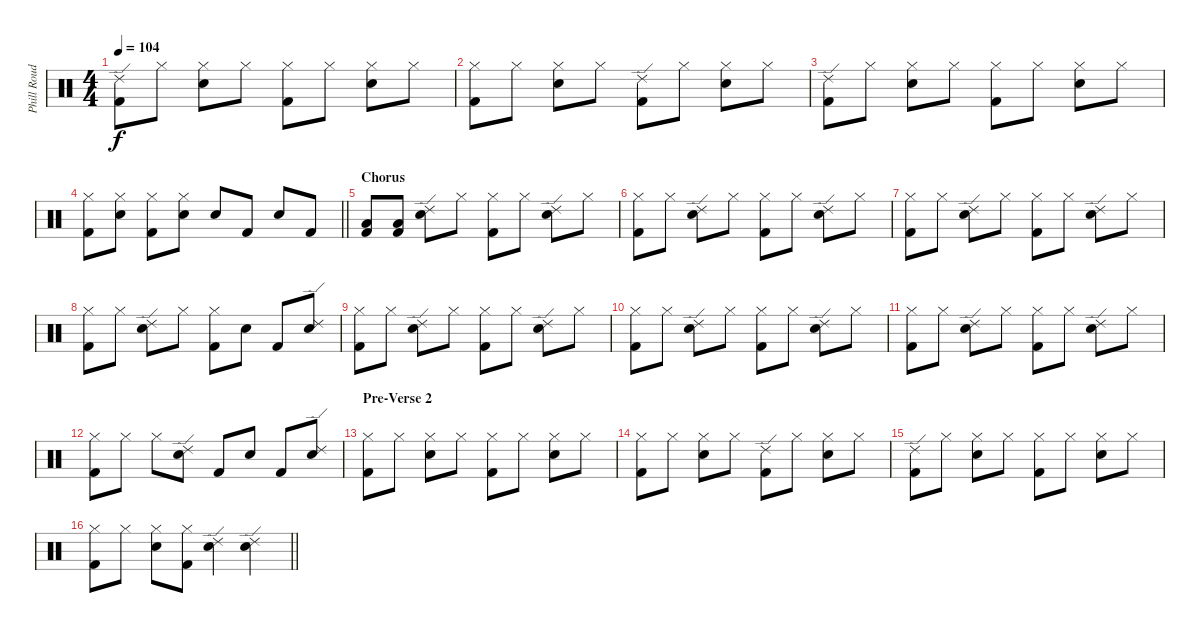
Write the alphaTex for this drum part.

\track ("Phill Roud" "Phill Roud") {instrument percussion}
\staff {score}
\articulation defaults
\ts (4 4)
\tempo 104
\clef neutral
\ks c
("Kick (hit) 2" "Ride (edge) 2").8{dy f} "Hi-Hat (closed)".8 ("Hi-Hat (closed)" "Snare (hit) 2").8 "Hi-Hat (closed)".8 ("Hi-Hat (closed)" "Kick (hit) 2").8 "Hi-Hat (closed)".8 ("Hi-Hat (closed)" "Snare (hit) 2").8 "Hi-Hat (closed)".8 |
("Hi-Hat (closed)" "Kick (hit) 2").8 "Hi-Hat (closed)".8 ("Hi-Hat (closed)" "Snare (hit) 2").8 "Hi-Hat (closed)".8 ("Kick (hit) 2" "Ride (edge) 2").8 "Hi-Hat (closed)".8 ("Hi-Hat (closed)" "Snare (hit) 2").8 "Hi-Hat (closed)".8 |
("Kick (hit) 2" "Ride (edge) 2").8 "Hi-Hat (closed)".8 ("Hi-Hat (closed)" "Snare (hit) 2").8 "Hi-Hat (closed)".8 ("Hi-Hat (closed)" "Kick (hit) 2").8 "Hi-Hat (closed)".8 ("Hi-Hat (closed)" "Snare (hit) 2").8 "Hi-Hat (closed)".8 |
\barLineRight lightlight
("Hi-Hat (closed)" "Kick (hit) 2").8 ("Hi-Hat (closed)" "Snare (hit) 2").8 ("Hi-Hat (closed)" "Kick (hit) 2").8 ("Hi-Hat (closed)" "Snare (hit) 2").8 "Snare (hit) 2".8 "Kick (hit) 2".8 "Snare (hit) 2".8 "Kick (hit) 2".8 |
\section ("" "Chorus")
("Kick (hit) 2" "Low Floor Tom (hit)").8 ("Kick (hit) 2" "Low Floor Tom (hit)").8 ("Snare (hit) 2" "Ride (edge) 2").8 "Hi-Hat (closed)".8 ("Hi-Hat (closed)" "Kick (hit) 2").8 "Hi-Hat (closed)".8 ("Snare (hit) 2" "Ride (edge) 2").8 "Hi-Hat (closed)".8 |
("Hi-Hat (closed)" "Kick (hit) 2").8 "Hi-Hat (closed)".8 ("Snare (hit) 2" "Ride (edge) 2").8 "Hi-Hat (closed)".8 ("Hi-Hat (closed)" "Kick (hit) 2").8 "Hi-Hat (closed)".8 ("Snare (hit) 2" "Ride (edge) 2").8 "Hi-Hat (closed)".8 |
("Hi-Hat (closed)" "Kick (hit) 2").8 "Hi-Hat (closed)".8 ("Snare (hit) 2" "Ride (edge) 2").8 "Hi-Hat (closed)".8 ("Hi-Hat (closed)" "Kick (hit) 2").8 "Hi-Hat (closed)".8 ("Snare (hit) 2" "Ride (edge) 2").8 "Hi-Hat (closed)".8 |
("Hi-Hat (closed)" "Kick (hit) 2").8 "Hi-Hat (closed)".8 ("Snare (hit) 2" "Ride (edge) 2").8 "Hi-Hat (closed)".8 ("Hi-Hat (closed)" "Kick (hit) 2").8 "Snare (hit) 2".8 "Kick (hit) 2".8 ("Snare (hit) 2" "Ride (edge) 2").8 |
("Hi-Hat (closed)" "Kick (hit) 2").8 "Hi-Hat (closed)".8 ("Snare (hit) 2" "Ride (edge) 2").8 "Hi-Hat (closed)".8 ("Hi-Hat (closed)" "Kick (hit) 2").8 "Hi-Hat (closed)".8 ("Snare (hit) 2" "Ride (edge) 2").8 "Hi-Hat (closed)".8 |
("Hi-Hat (closed)" "Kick (hit) 2").8 "Hi-Hat (closed)".8 ("Snare (hit) 2" "Ride (edge) 2").8 "Hi-Hat (closed)".8 ("Hi-Hat (closed)" "Kick (hit) 2").8 "Hi-Hat (closed)".8 ("Snare (hit) 2" "Ride (edge) 2").8 "Hi-Hat (closed)".8 |
("Hi-Hat (closed)" "Kick (hit) 2").8 "Hi-Hat (closed)".8 ("Snare (hit) 2" "Ride (edge) 2").8 "Hi-Hat (closed)".8 ("Hi-Hat (closed)" "Kick (hit) 2").8 "Hi-Hat (closed)".8 ("Snare (hit) 2" "Ride (edge) 2").8 "Hi-Hat (closed)".8 |
("Hi-Hat (closed)" "Kick (hit) 2").8 "Hi-Hat (closed)".8 "Hi-Hat (closed)".8 ("Snare (hit) 2" "Ride (edge) 2").8 "Kick (hit) 2".8 "Snare (hit) 2".8 "Kick (hit) 2".8 ("Snare (hit) 2" "Ride (edge) 2").8 |
\section ("" "Pre-Verse 2")
("Hi-Hat (closed)" "Kick (hit) 2").8 "Hi-Hat (closed)".8 ("Hi-Hat (closed)" "Snare (hit) 2").8 "Hi-Hat (closed)".8 ("Hi-Hat (closed)" "Kick (hit) 2").8 "Hi-Hat (closed)".8 ("Hi-Hat (closed)" "Snare (hit) 2").8 "Hi-Hat (closed)".8 |
("Hi-Hat (closed)" "Kick (hit) 2").8 "Hi-Hat (closed)".8 ("Hi-Hat (closed)" "Snare (hit) 2").8 "Hi-Hat (closed)".8 ("Kick (hit) 2" "Ride (edge) 2").8 "Hi-Hat (closed)".8 ("Hi-Hat (closed)" "Snare (hit) 2").8 "Hi-Hat (closed)".8 |
("Kick (hit) 2" "Ride (edge) 2").8 "Hi-Hat (closed)".8 ("Hi-Hat (closed)" "Snare (hit) 2").8 "Hi-Hat (closed)".8 ("Hi-Hat (closed)" "Kick (hit) 2").8 "Hi-Hat (closed)".8 ("Hi-Hat (closed)" "Snare (hit) 2").8 "Hi-Hat (closed)".8 |
\barLineRight lightlight
("Hi-Hat (closed)" "Kick (hit) 2").8 "Hi-Hat (closed)".8 ("Hi-Hat (closed)" "Snare (hit) 2").8 ("Hi-Hat (closed)" "Kick (hit) 2").8 ("Snare (hit) 2" "Ride (edge) 2").4 ("Snare (hit) 2" "Ride (edge) 2").4
